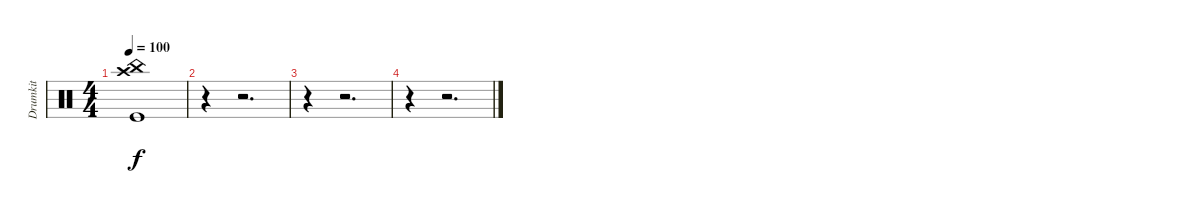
\track ("Drumkit" "Drumkit") {instrument percussion}
\staff {score}
\articulation defaults
\ts (4 4)
\tempo 100
\clef neutral
\ks c
("Kick (hit)" "Crash high (hit)" "China (hit)").1{dy f} |
r.4 r.2{d} |
r.4 r.2{d} |
r.4 r.2{d}
